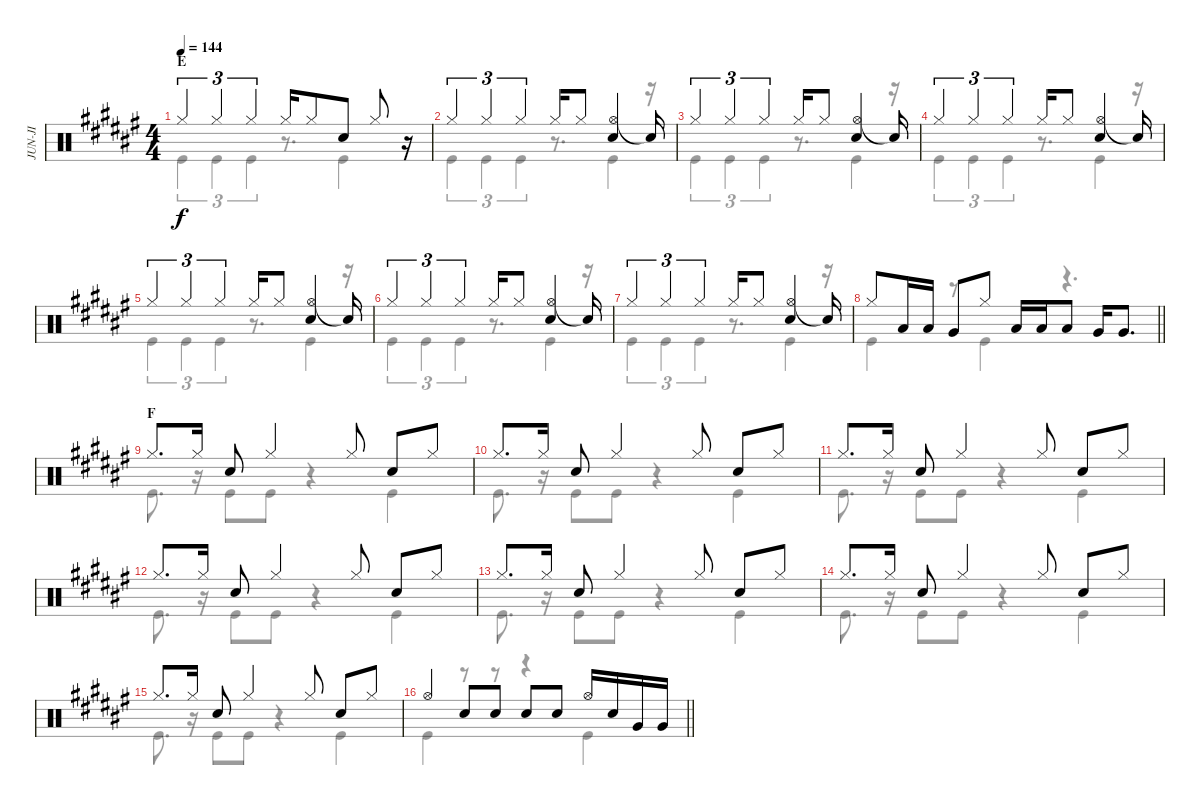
\track ("JUN-JI" "JUN-JI") {instrument percussion}
\staff {score}
\articulation defaults
\voice
\ts (4 4)
\section ("" "E")
\tempo 144
\clef neutral
\ks d#minor "Hi-Hat (closed)".4{tu (3 2) dy f} "Hi-Hat (closed)".4{tu (3 2)} "Hi-Hat (closed)".4{tu (3 2)} "Hi-Hat (closed)".16 "Hi-Hat (closed)".8 "Snare (hit) 2".8 "Hi-Hat (closed)".8
r.16 |
"Hi-Hat (closed)".4{tu (3 2)} "Hi-Hat (closed)".4{tu (3 2)} "Hi-Hat (closed)".4{tu (3 2)} "Hi-Hat (closed)".16 "Hi-Hat (closed)".8 ("Hi-Hat (open)" "Snare (hit) 2").4 "Snare (hit)"{t}.16 |
"Hi-Hat (closed)".4{tu (3 2)} "Hi-Hat (closed)".4{tu (3 2)} "Hi-Hat (closed)".4{tu (3 2)} "Hi-Hat (closed)".16 "Hi-Hat (closed)".8 ("Hi-Hat (open)" "Snare (hit) 2").4 "Snare (hit)"{t}.16 |
"Hi-Hat (closed)".4{tu (3 2)} "Hi-Hat (closed)".4{tu (3 2)} "Hi-Hat (closed)".4{tu (3 2)} "Hi-Hat (closed)".16 "Hi-Hat (closed)".8 ("Hi-Hat (open)" "Snare (hit) 2").4 "Snare (hit)"{t}.16 |
"Hi-Hat (closed)".4{tu (3 2)} "Hi-Hat (closed)".4{tu (3 2)} "Hi-Hat (closed)".4{tu (3 2)} "Hi-Hat (closed)".16 "Hi-Hat (closed)".8 ("Hi-Hat (open)" "Snare (hit) 2").4 "Snare (hit)"{t}.16 |
"Hi-Hat (closed)".4{tu (3 2)} "Hi-Hat (closed)".4{tu (3 2)} "Hi-Hat (closed)".4{tu (3 2)} "Hi-Hat (closed)".16 "Hi-Hat (closed)".8 ("Hi-Hat (open)" "Snare (hit) 2").4 "Snare (hit)"{t}.16 |
"Hi-Hat (closed)".4{tu (3 2)} "Hi-Hat (closed)".4{tu (3 2)} "Hi-Hat (closed)".4{tu (3 2)} "Hi-Hat (closed)".16 "Hi-Hat (closed)".8 ("Hi-Hat (open)" "Snare (hit) 2").4 "Snare (hit)"{t}.16 |
\barLineRight lightlight "Hi-Hat (closed)".8 "Low Tom (hit)".16 "Low Tom (hit)".16 "Very Low Tom (hit)".8 "Hi-Hat (closed)".8 "Low Tom (hit)".16 "Low Tom (hit)".16 "Low Tom (hit)".8 "Very Low Tom (hit)".16 "Very Low Tom (hit)".8{d}
|
\section ("" "F")
"Hi-Hat (closed)".8{d} "Hi-Hat (closed)".16 "Snare (hit) 2".8 "Hi-Hat (closed)".4 "Hi-Hat (closed)".8 "Snare (hit) 2".8 "Hi-Hat (closed)".8 |
"Hi-Hat (closed)".8{d} "Hi-Hat (closed)".16 "Snare (hit) 2".8 "Hi-Hat (closed)".4 "Hi-Hat (closed)".8 "Snare (hit) 2".8 "Hi-Hat (closed)".8 |
"Hi-Hat (closed)".8{d} "Hi-Hat (closed)".16 "Snare (hit) 2".8 "Hi-Hat (closed)".4 "Hi-Hat (closed)".8 "Snare (hit) 2".8 "Hi-Hat (closed)".8 |
"Hi-Hat (closed)".8{d} "Hi-Hat (closed)".16 "Snare (hit) 2".8 "Hi-Hat (closed)".4 "Hi-Hat (closed)".8 "Snare (hit) 2".8 "Hi-Hat (closed)".8 |
"Hi-Hat (closed)".8{d} "Hi-Hat (closed)".16 "Snare (hit) 2".8 "Hi-Hat (closed)".4 "Hi-Hat (closed)".8 "Snare (hit) 2".8 "Hi-Hat (closed)".8 |
"Hi-Hat (closed)".8{d} "Hi-Hat (closed)".16 "Snare (hit) 2".8 "Hi-Hat (closed)".4 "Hi-Hat (closed)".8 "Snare (hit) 2".8 "Hi-Hat (closed)".8 |
"Hi-Hat (closed)".8{d} "Hi-Hat (closed)".16 "Snare (hit) 2".8 "Hi-Hat (closed)".4 "Hi-Hat (closed)".8 "Snare (hit) 2".8 "Hi-Hat (closed)".8 |
\barLineRight lightlight "Hi-Hat (open)".4 "Snare (hit) 2".8 "Snare (hit) 2".8 "Snare (hit) 2".8 "Snare (hit) 2".8 "Hi-Hat (open)".16 "Snare (hit) 2".16 "Very Low Tom (hit)".16 "Very Low Tom (hit)".16
\voice
\clef neutral
\ottava regular
\simile none
\ks d#minor "Kick (hit)".4{tu (3 2) dy f} "Kick (hit)".4{tu (3 2)} "Kick (hit)".4{tu (3 2)}
r.8{d} "Kick (hit)".4 r.16 |
"Kick (hit)".4{tu (3 2)} "Kick (hit)".4{tu (3 2)} "Kick (hit)".4{tu (3 2)} r.8{d} "Kick (hit)".4 r.16 |
"Kick (hit)".4{tu (3 2)} "Kick (hit)".4{tu (3 2)} "Kick (hit)".4{tu (3 2)} r.8{d} "Kick (hit)".4 r.16 |
"Kick (hit)".4{tu (3 2)} "Kick (hit)".4{tu (3 2)} "Kick (hit)".4{tu (3 2)} r.8{d} "Kick (hit)".4 r.16 |
"Kick (hit)".4{tu (3 2)} "Kick (hit)".4{tu (3 2)} "Kick (hit)".4{tu (3 2)} r.8{d} "Kick (hit)".4 r.16 |
"Kick (hit)".4{tu (3 2)} "Kick (hit)".4{tu (3 2)} "Kick (hit)".4{tu (3 2)} r.8{d} "Kick (hit)".4 r.16 |
"Kick (hit)".4{tu (3 2)} "Kick (hit)".4{tu (3 2)} "Kick (hit)".4{tu (3 2)} r.8{d} "Kick (hit)".4 r.16 |
\barLineRight lightlight "Kick (hit)".4
r.8 "Kick (hit)".4 r.4{d} |
"Kick (hit)".8{d} r.16 "Kick (hit)".8 "Kick (hit)".8 r.4 "Kick (hit)".4 |
"Kick (hit)".8{d} r.16 "Kick (hit)".8 "Kick (hit)".8 r.4 "Kick (hit)".4 |
"Kick (hit)".8{d} r.16 "Kick (hit)".8 "Kick (hit)".8 r.4 "Kick (hit)".4 |
"Kick (hit)".8{d} r.16 "Kick (hit)".8 "Kick (hit)".8 r.4 "Kick (hit)".4 |
"Kick (hit)".8{d} r.16 "Kick (hit)".8 "Kick (hit)".8 r.4 "Kick (hit)".4 |
"Kick (hit)".8{d} r.16 "Kick (hit)".8 "Kick (hit)".8 r.4 "Kick (hit)".4 |
"Kick (hit)".8{d} r.16 "Kick (hit)".8 "Kick (hit)".8 r.4 "Kick (hit)".4 |
\barLineRight lightlight "Kick (hit)".4
r.8 r.8 r.4 "Kick (hit)".4
